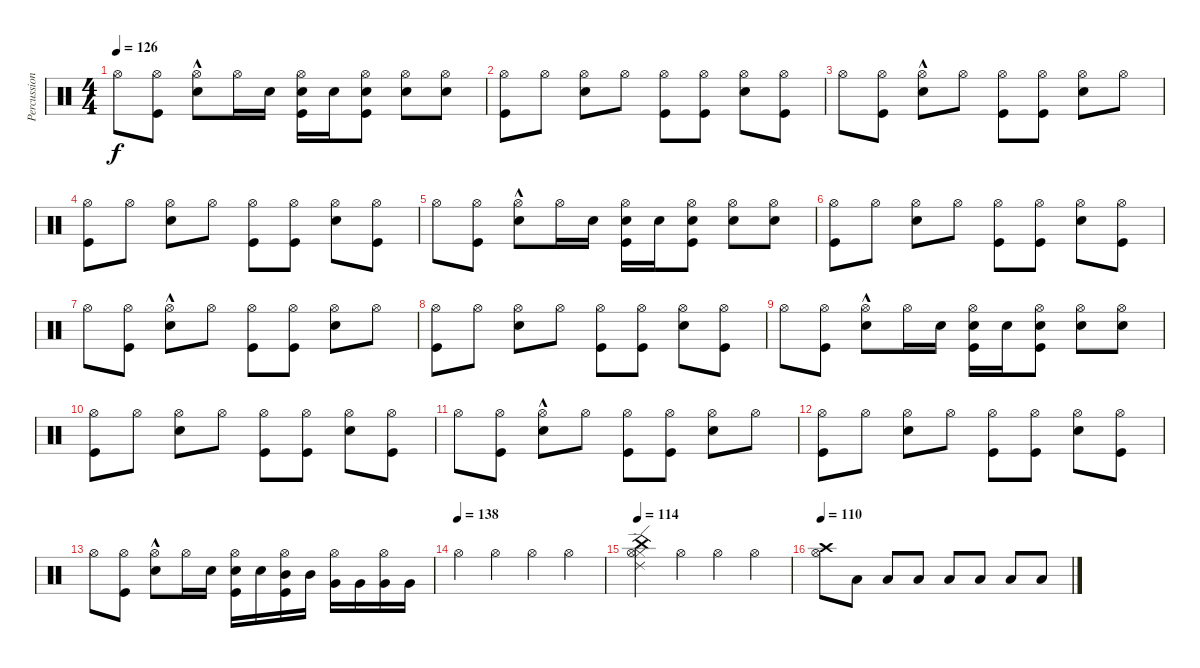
\track ("Percussion" "Percussion") {instrument percussion}
\staff {score}
\articulation defaults
\ts (4 4)
\tempo 126
\clef neutral
\ks c "Hi-Hat (open)".8{dy f}
("Hi-Hat (open)" "Kick (hit)").8 ("Hi-Hat (open)" "Electric Snare (hit)"{hac}).8 "Hi-Hat (open)".16 "Electric Snare (hit)".16 ("Kick (hit)" "Electric Snare (hit)" "Hi-Hat (open)").16 "Electric Snare (hit)".16 ("Electric Snare (hit)" "Hi-Hat (open)" "Kick (hit)").8 ("Hi-Hat (open)" "Electric Snare (hit)").8 ("Electric Snare (hit)" "Hi-Hat (open)").8 |
("Hi-Hat (open)" "Kick (hit)").8 "Hi-Hat (open)".8 ("Electric Snare (hit)" "Hi-Hat (open)").8 "Hi-Hat (open)".8 ("Kick (hit)" "Hi-Hat (open)").8 ("Hi-Hat (open)" "Kick (hit)").8 ("Hi-Hat (open)" "Electric Snare (hit)").8 ("Kick (hit)" "Hi-Hat (open)").8 |
"Hi-Hat (open)".8 ("Kick (hit)" "Hi-Hat (open)").8 ("Electric Snare (hit)"{hac} "Hi-Hat (open)").8 "Hi-Hat (open)".8 ("Kick (hit)" "Hi-Hat (open)").8 ("Kick (hit)" "Hi-Hat (open)").8 ("Electric Snare (hit)" "Hi-Hat (open)").8 "Hi-Hat (open)".8 |
("Hi-Hat (open)" "Kick (hit)").8 "Hi-Hat (open)".8 ("Hi-Hat (open)" "Electric Snare (hit)").8 "Hi-Hat (open)".8 ("Hi-Hat (open)" "Kick (hit)").8 ("Hi-Hat (open)" "Kick (hit)").8 ("Hi-Hat (open)" "Electric Snare (hit)").8 ("Kick (hit)" "Hi-Hat (open)").8 |
"Hi-Hat (open)".8 ("Hi-Hat (open)" "Kick (hit)").8 ("Hi-Hat (open)" "Electric Snare (hit)"{hac}).8 "Hi-Hat (open)".16 "Electric Snare (hit)".16 ("Kick (hit)" "Electric Snare (hit)" "Hi-Hat (open)").16 "Electric Snare (hit)".16 ("Electric Snare (hit)" "Hi-Hat (open)" "Kick (hit)").8 ("Hi-Hat (open)" "Electric Snare (hit)").8 ("Electric Snare (hit)" "Hi-Hat (open)").8 |
("Hi-Hat (open)" "Kick (hit)").8 "Hi-Hat (open)".8 ("Electric Snare (hit)" "Hi-Hat (open)").8 "Hi-Hat (open)".8 ("Kick (hit)" "Hi-Hat (open)").8 ("Hi-Hat (open)" "Kick (hit)").8 ("Hi-Hat (open)" "Electric Snare (hit)").8 ("Kick (hit)" "Hi-Hat (open)").8 |
"Hi-Hat (open)".8 ("Kick (hit)" "Hi-Hat (open)").8 ("Electric Snare (hit)"{hac} "Hi-Hat (open)").8 "Hi-Hat (open)".8 ("Kick (hit)" "Hi-Hat (open)").8 ("Kick (hit)" "Hi-Hat (open)").8 ("Electric Snare (hit)" "Hi-Hat (open)").8 "Hi-Hat (open)".8 |
("Hi-Hat (open)" "Kick (hit)").8 "Hi-Hat (open)".8 ("Hi-Hat (open)" "Electric Snare (hit)").8 "Hi-Hat (open)".8 ("Hi-Hat (open)" "Kick (hit)").8 ("Hi-Hat (open)" "Kick (hit)").8 ("Hi-Hat (open)" "Electric Snare (hit)").8 ("Kick (hit)" "Hi-Hat (open)").8 |
"Hi-Hat (open)".8 ("Hi-Hat (open)" "Kick (hit)").8 ("Hi-Hat (open)" "Electric Snare (hit)"{hac}).8 "Hi-Hat (open)".16 "Electric Snare (hit)".16 ("Kick (hit)" "Electric Snare (hit)" "Hi-Hat (open)").16 "Electric Snare (hit)".16 ("Electric Snare (hit)" "Hi-Hat (open)" "Kick (hit)").8 ("Hi-Hat (open)" "Electric Snare (hit)").8 ("Electric Snare (hit)" "Hi-Hat (open)").8 |
("Hi-Hat (open)" "Kick (hit)").8 "Hi-Hat (open)".8 ("Electric Snare (hit)" "Hi-Hat (open)").8 "Hi-Hat (open)".8 ("Kick (hit)" "Hi-Hat (open)").8 ("Hi-Hat (open)" "Kick (hit)").8 ("Hi-Hat (open)" "Electric Snare (hit)").8 ("Kick (hit)" "Hi-Hat (open)").8 |
"Hi-Hat (open)".8 ("Kick (hit)" "Hi-Hat (open)").8 ("Electric Snare (hit)"{hac} "Hi-Hat (open)").8 "Hi-Hat (open)".8 ("Kick (hit)" "Hi-Hat (open)").8 ("Kick (hit)" "Hi-Hat (open)").8 ("Electric Snare (hit)" "Hi-Hat (open)").8 "Hi-Hat (open)".8 |
("Hi-Hat (open)" "Kick (hit)").8 "Hi-Hat (open)".8 ("Hi-Hat (open)" "Electric Snare (hit)").8 "Hi-Hat (open)".8 ("Hi-Hat (open)" "Kick (hit)").8 ("Hi-Hat (open)" "Kick (hit)").8 ("Hi-Hat (open)" "Electric Snare (hit)").8 ("Kick (hit)" "Hi-Hat (open)").8 |
"Hi-Hat (open)".8 ("Hi-Hat (open)" "Kick (hit)").8 ("Hi-Hat (open)" "Electric Snare (hit)"{hac}).8 "Hi-Hat (open)".16 "Electric Snare (hit)".16 ("Kick (hit)" "Electric Snare (hit)" "Hi-Hat (open)").16 "Electric Snare (hit)".16 ("Mid Tom (hit)" "Hi-Hat (open)" "Kick (hit)").16 "Mid Tom (hit)".16 ("Very Low Tom (hit)" "Hi-Hat (open)").16 "Very Low Tom (hit)".16 ("Hi-Hat (open)" "Very Low Tom (hit)").16 "Very Low Tom (hit)".16 |
\tempo (138)
"Hi-Hat (open)".4 "Hi-Hat (open)".4 "Hi-Hat (open)".4 "Hi-Hat (open)".4 |
\tempo 114
("Hi-Hat (closed)" "Hi-Hat (open)" "China (hit)" "Ride (edge) 2").4 "Hi-Hat (open)".4 "Hi-Hat (open)".4 "Hi-Hat (open)".4 |
\tempo 110
("Hi-Hat (open)" "Crash high (hit)").8 "Low Floor Tom (hit)".8 "Low Floor Tom (hit)".8 "Low Floor Tom (hit)".8 "Low Floor Tom (hit)".8 "Low Floor Tom (hit)".8 "Low Floor Tom (hit)".8 "Low Floor Tom (hit)".8
